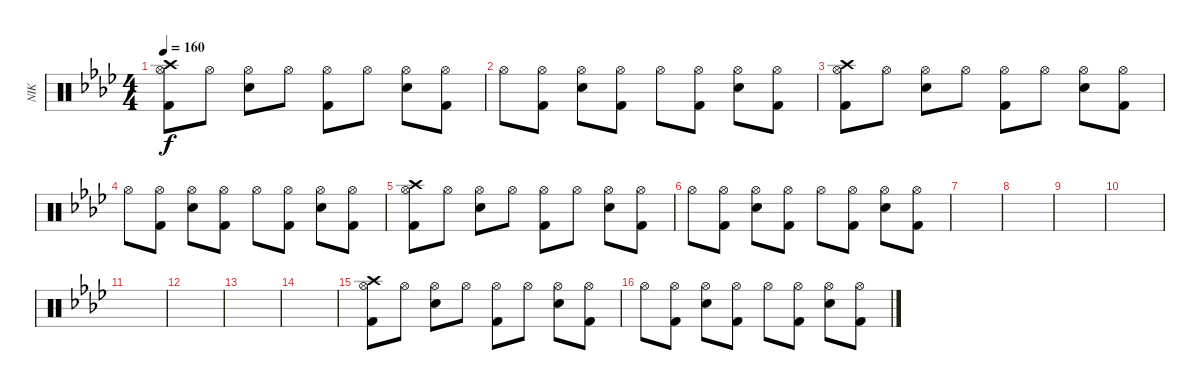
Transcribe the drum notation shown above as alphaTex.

\track ("NIK" "NIK") {instrument percussion}
\staff {score}
\articulation defaults
\ts (4 4)
\tempo 160
\clef neutral
\ks ab
("Crash high (hit)" "Hi-Hat (open)" "Kick (hit) 2").8{dy f} "Hi-Hat (open)".8 ("Hi-Hat (open)" "Electric Snare (hit)").8 "Hi-Hat (open)".8 ("Hi-Hat (open)" "Kick (hit) 2").8 "Hi-Hat (open)".8 ("Hi-Hat (open)" "Electric Snare (hit)").8 ("Hi-Hat (open)" "Kick (hit) 2").8 |
"Hi-Hat (open)".8 ("Hi-Hat (open)" "Kick (hit) 2").8 ("Hi-Hat (open)" "Electric Snare (hit)").8 ("Hi-Hat (open)" "Kick (hit) 2").8 "Hi-Hat (open)".8 ("Hi-Hat (open)" "Kick (hit) 2").8 ("Hi-Hat (open)" "Electric Snare (hit)").8 ("Hi-Hat (open)" "Kick (hit) 2").8 |
("Crash high (hit)" "Hi-Hat (open)" "Kick (hit) 2").8 "Hi-Hat (open)".8 ("Hi-Hat (open)" "Electric Snare (hit)").8 "Hi-Hat (open)".8 ("Hi-Hat (open)" "Kick (hit) 2").8 "Hi-Hat (open)".8 ("Hi-Hat (open)" "Electric Snare (hit)").8 ("Hi-Hat (open)" "Kick (hit) 2").8 |
"Hi-Hat (open)".8 ("Hi-Hat (open)" "Kick (hit) 2").8 ("Hi-Hat (open)" "Electric Snare (hit)").8 ("Hi-Hat (open)" "Kick (hit) 2").8 "Hi-Hat (open)".8 ("Hi-Hat (open)" "Kick (hit) 2").8 ("Hi-Hat (open)" "Electric Snare (hit)").8 ("Hi-Hat (open)" "Kick (hit) 2").8 |
("Crash high (hit)" "Hi-Hat (open)" "Kick (hit) 2").8 "Hi-Hat (open)".8 ("Hi-Hat (open)" "Electric Snare (hit)").8 "Hi-Hat (open)".8 ("Hi-Hat (open)" "Kick (hit) 2").8 "Hi-Hat (open)".8 ("Hi-Hat (open)" "Electric Snare (hit)").8 ("Hi-Hat (open)" "Kick (hit) 2").8 |
"Hi-Hat (open)".8 ("Hi-Hat (open)" "Kick (hit) 2").8 ("Hi-Hat (open)" "Electric Snare (hit)").8 ("Hi-Hat (open)" "Kick (hit) 2").8 "Hi-Hat (open)".8 ("Hi-Hat (open)" "Kick (hit) 2").8 ("Hi-Hat (open)" "Electric Snare (hit)").8 ("Hi-Hat (open)" "Kick (hit) 2").8 |
|
|
|
|
|
|
|
|
("Crash high (hit)" "Hi-Hat (open)" "Kick (hit) 2").8 "Hi-Hat (open)".8 ("Hi-Hat (open)" "Electric Snare (hit)").8 "Hi-Hat (open)".8 ("Hi-Hat (open)" "Kick (hit) 2").8 "Hi-Hat (open)".8 ("Hi-Hat (open)" "Electric Snare (hit)").8 ("Hi-Hat (open)" "Kick (hit) 2").8 |
"Hi-Hat (open)".8 ("Hi-Hat (open)" "Kick (hit) 2").8 ("Hi-Hat (open)" "Electric Snare (hit)").8 ("Hi-Hat (open)" "Kick (hit) 2").8 "Hi-Hat (open)".8 ("Hi-Hat (open)" "Kick (hit) 2").8 ("Hi-Hat (open)" "Electric Snare (hit)").8 ("Hi-Hat (open)" "Kick (hit) 2").8
